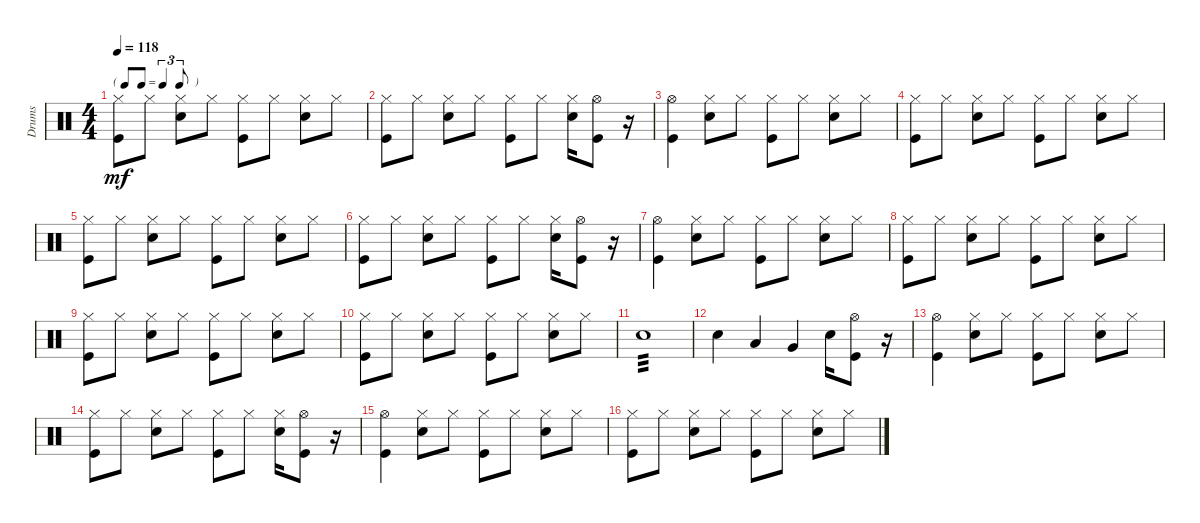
\track ("Drums" "Drums") {instrument percussion}
\staff {score}
\articulation defaults
\ts (4 4)
\tf triplet8th
\tempo 118
\clef neutral
\ks c
("Hi-Hat (closed)" "Kick (hit)").8{dy mf} "Hi-Hat (closed)".8 ("Hi-Hat (closed)" "Snare (hit) 2").8 "Hi-Hat (closed)".8 ("Hi-Hat (closed)" "Kick (hit)").8 "Hi-Hat (closed)".8 ("Hi-Hat (closed)" "Snare (hit) 2").8 "Hi-Hat (closed)".8 |
("Hi-Hat (closed)" "Kick (hit)").8 "Hi-Hat (closed)".8 ("Hi-Hat (closed)" "Snare (hit) 2").8 "Hi-Hat (closed)".8 ("Hi-Hat (closed)" "Kick (hit)").8 "Hi-Hat (closed)".8 ("Hi-Hat (closed)" "Snare (hit) 2").16 ("Kick (hit)" "Hi-Hat (open)").8 r.16 |
("Kick (hit)" "Hi-Hat (open)").4 ("Hi-Hat (closed)" "Snare (hit) 2").8 "Hi-Hat (closed)".8 ("Hi-Hat (closed)" "Kick (hit)").8 "Hi-Hat (closed)".8 ("Hi-Hat (closed)" "Snare (hit) 2").8 "Hi-Hat (closed)".8 |
("Hi-Hat (closed)" "Kick (hit)").8 "Hi-Hat (closed)".8 ("Hi-Hat (closed)" "Snare (hit) 2").8 "Hi-Hat (closed)".8 ("Hi-Hat (closed)" "Kick (hit)").8 "Hi-Hat (closed)".8 ("Hi-Hat (closed)" "Snare (hit) 2").8 "Hi-Hat (closed)".8 |
("Hi-Hat (closed)" "Kick (hit)").8 "Hi-Hat (closed)".8 ("Hi-Hat (closed)" "Snare (hit) 2").8 "Hi-Hat (closed)".8 ("Hi-Hat (closed)" "Kick (hit)").8 "Hi-Hat (closed)".8 ("Hi-Hat (closed)" "Snare (hit) 2").8 "Hi-Hat (closed)".8 |
("Hi-Hat (closed)" "Kick (hit)").8 "Hi-Hat (closed)".8 ("Hi-Hat (closed)" "Snare (hit) 2").8 "Hi-Hat (closed)".8 ("Hi-Hat (closed)" "Kick (hit)").8 "Hi-Hat (closed)".8 ("Hi-Hat (closed)" "Snare (hit) 2").16 ("Hi-Hat (open)" "Kick (hit)").8 r.16 |
("Hi-Hat (open)" "Kick (hit)").4 ("Snare (hit) 2" "Hi-Hat (closed)").8 "Hi-Hat (closed)".8 ("Hi-Hat (closed)" "Kick (hit)").8 "Hi-Hat (closed)".8 ("Hi-Hat (closed)" "Snare (hit) 2").8 "Hi-Hat (closed)".8 |
("Hi-Hat (closed)" "Kick (hit)").8 "Hi-Hat (closed)".8 ("Hi-Hat (closed)" "Snare (hit) 2").8 "Hi-Hat (closed)".8 ("Hi-Hat (closed)" "Kick (hit)").8 "Hi-Hat (closed)".8 ("Hi-Hat (closed)" "Snare (hit) 2").8 "Hi-Hat (closed)".8 |
("Hi-Hat (closed)" "Kick (hit)").8 "Hi-Hat (closed)".8 ("Hi-Hat (closed)" "Snare (hit) 2").8 "Hi-Hat (closed)".8 ("Hi-Hat (closed)" "Kick (hit)").8 "Hi-Hat (closed)".8 ("Hi-Hat (closed)" "Snare (hit) 2").8 "Hi-Hat (closed)".8 |
("Hi-Hat (closed)" "Kick (hit)").8 "Hi-Hat (closed)".8 ("Hi-Hat (closed)" "Snare (hit) 2").8 "Hi-Hat (closed)".8 ("Hi-Hat (closed)" "Kick (hit)").8 "Hi-Hat (closed)".8 ("Hi-Hat (closed)" "Snare (hit) 2").8 "Hi-Hat (closed)".8 |
"Snare (hit) 2".1{tp 3} |
"Snare (hit) 2".4 "Low Tom (hit)".4 "Very Low Tom (hit)".4 "Snare (hit) 2".16 ("Hi-Hat (open)" "Kick (hit)").8 r.16 |
("Hi-Hat (open)" "Kick (hit)").4 ("Hi-Hat (closed)" "Snare (hit) 2").8 "Hi-Hat (closed)".8 ("Hi-Hat (closed)" "Kick (hit)").8 "Hi-Hat (closed)".8 ("Hi-Hat (closed)" "Snare (hit) 2").8 "Hi-Hat (closed)".8 |
("Hi-Hat (closed)" "Kick (hit)").8 "Hi-Hat (closed)".8 ("Hi-Hat (closed)" "Snare (hit) 2").8 "Hi-Hat (closed)".8 ("Hi-Hat (closed)" "Kick (hit)").8 "Hi-Hat (closed)".8 ("Hi-Hat (closed)" "Snare (hit) 2").16 ("Hi-Hat (open)" "Kick (hit)").8 r.16 |
("Hi-Hat (open)" "Kick (hit)").4 ("Hi-Hat (closed)" "Snare (hit) 2").8 "Hi-Hat (closed)".8 ("Hi-Hat (closed)" "Kick (hit)").8 "Hi-Hat (closed)".8 ("Hi-Hat (closed)" "Snare (hit) 2").8 "Hi-Hat (closed)".8 |
("Hi-Hat (closed)" "Kick (hit)").8 "Hi-Hat (closed)".8 ("Hi-Hat (closed)" "Snare (hit) 2").8 "Hi-Hat (closed)".8 ("Hi-Hat (closed)" "Kick (hit)").8 "Hi-Hat (closed)".8 ("Hi-Hat (closed)" "Snare (hit) 2").8 "Hi-Hat (closed)".8
